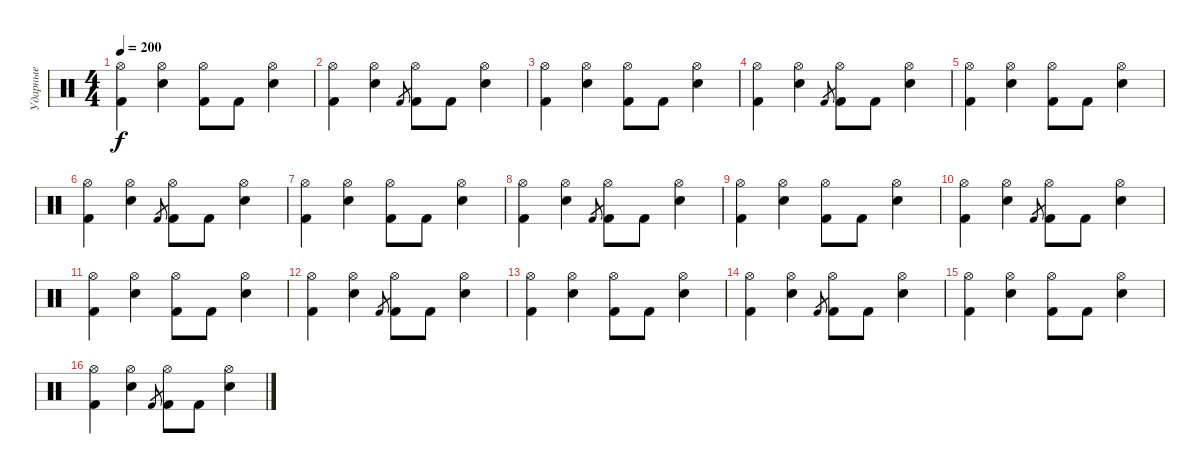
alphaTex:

\track ("Ударные" "Ударные") {instrument percussion}
\staff {score}
\articulation defaults
\ts (4 4)
\tempo 200
\clef neutral
\ks c
("Hi-Hat (open)" "Kick (hit) 2").4{dy f} ("Hi-Hat (open)" "Electric Snare (hit)").4 ("Hi-Hat (open)" "Kick (hit) 2").8 "Kick (hit) 2".8 ("Hi-Hat (open)" "Electric Snare (hit)").4 |
("Hi-Hat (open)" "Kick (hit) 2").4 ("Hi-Hat (open)" "Electric Snare (hit)").4 "Kick (hit) 2".8{gr} ("Hi-Hat (open)" "Kick (hit) 2").8 "Kick (hit) 2".8 ("Hi-Hat (open)" "Electric Snare (hit)").4 |
("Hi-Hat (open)" "Kick (hit) 2").4 ("Hi-Hat (open)" "Electric Snare (hit)").4 ("Hi-Hat (open)" "Kick (hit) 2").8 "Kick (hit) 2".8 ("Hi-Hat (open)" "Electric Snare (hit)").4 |
("Hi-Hat (open)" "Kick (hit) 2").4 ("Hi-Hat (open)" "Electric Snare (hit)").4 "Kick (hit) 2".8{gr} ("Hi-Hat (open)" "Kick (hit) 2").8 "Kick (hit) 2".8 ("Hi-Hat (open)" "Electric Snare (hit)").4 |
("Hi-Hat (open)" "Kick (hit) 2").4 ("Hi-Hat (open)" "Electric Snare (hit)").4 ("Hi-Hat (open)" "Kick (hit) 2").8 "Kick (hit) 2".8 ("Hi-Hat (open)" "Electric Snare (hit)").4 |
("Hi-Hat (open)" "Kick (hit) 2").4 ("Hi-Hat (open)" "Electric Snare (hit)").4 "Kick (hit) 2".8{gr} ("Hi-Hat (open)" "Kick (hit) 2").8 "Kick (hit) 2".8 ("Hi-Hat (open)" "Electric Snare (hit)").4 |
("Hi-Hat (open)" "Kick (hit) 2").4 ("Hi-Hat (open)" "Electric Snare (hit)").4 ("Hi-Hat (open)" "Kick (hit) 2").8 "Kick (hit) 2".8 ("Hi-Hat (open)" "Electric Snare (hit)").4 |
("Hi-Hat (open)" "Kick (hit) 2").4 ("Hi-Hat (open)" "Electric Snare (hit)").4 "Kick (hit) 2".8{gr} ("Hi-Hat (open)" "Kick (hit) 2").8 "Kick (hit) 2".8 ("Hi-Hat (open)" "Electric Snare (hit)").4 |
("Hi-Hat (open)" "Kick (hit) 2").4 ("Hi-Hat (open)" "Electric Snare (hit)").4 ("Hi-Hat (open)" "Kick (hit) 2").8 "Kick (hit) 2".8 ("Hi-Hat (open)" "Electric Snare (hit)").4 |
("Hi-Hat (open)" "Kick (hit) 2").4 ("Hi-Hat (open)" "Electric Snare (hit)").4 "Kick (hit) 2".8{gr} ("Hi-Hat (open)" "Kick (hit) 2").8 "Kick (hit) 2".8 ("Hi-Hat (open)" "Electric Snare (hit)").4 |
("Hi-Hat (open)" "Kick (hit) 2").4 ("Hi-Hat (open)" "Electric Snare (hit)").4 ("Hi-Hat (open)" "Kick (hit) 2").8 "Kick (hit) 2".8 ("Hi-Hat (open)" "Electric Snare (hit)").4 |
("Hi-Hat (open)" "Kick (hit) 2").4 ("Hi-Hat (open)" "Electric Snare (hit)").4 "Kick (hit) 2".8{gr} ("Hi-Hat (open)" "Kick (hit) 2").8 "Kick (hit) 2".8 ("Hi-Hat (open)" "Electric Snare (hit)").4 |
("Hi-Hat (open)" "Kick (hit) 2").4 ("Hi-Hat (open)" "Electric Snare (hit)").4 ("Hi-Hat (open)" "Kick (hit) 2").8 "Kick (hit) 2".8 ("Hi-Hat (open)" "Electric Snare (hit)").4 |
("Hi-Hat (open)" "Kick (hit) 2").4 ("Hi-Hat (open)" "Electric Snare (hit)").4 "Kick (hit) 2".8{gr} ("Hi-Hat (open)" "Kick (hit) 2").8 "Kick (hit) 2".8 ("Hi-Hat (open)" "Electric Snare (hit)").4 |
("Hi-Hat (open)" "Kick (hit) 2").4 ("Hi-Hat (open)" "Electric Snare (hit)").4 ("Hi-Hat (open)" "Kick (hit) 2").8 "Kick (hit) 2".8 ("Hi-Hat (open)" "Electric Snare (hit)").4 |
("Hi-Hat (open)" "Kick (hit) 2").4 ("Hi-Hat (open)" "Electric Snare (hit)").4 "Kick (hit) 2".8{gr} ("Hi-Hat (open)" "Kick (hit) 2").8 "Kick (hit) 2".8 ("Hi-Hat (open)" "Electric Snare (hit)").4
